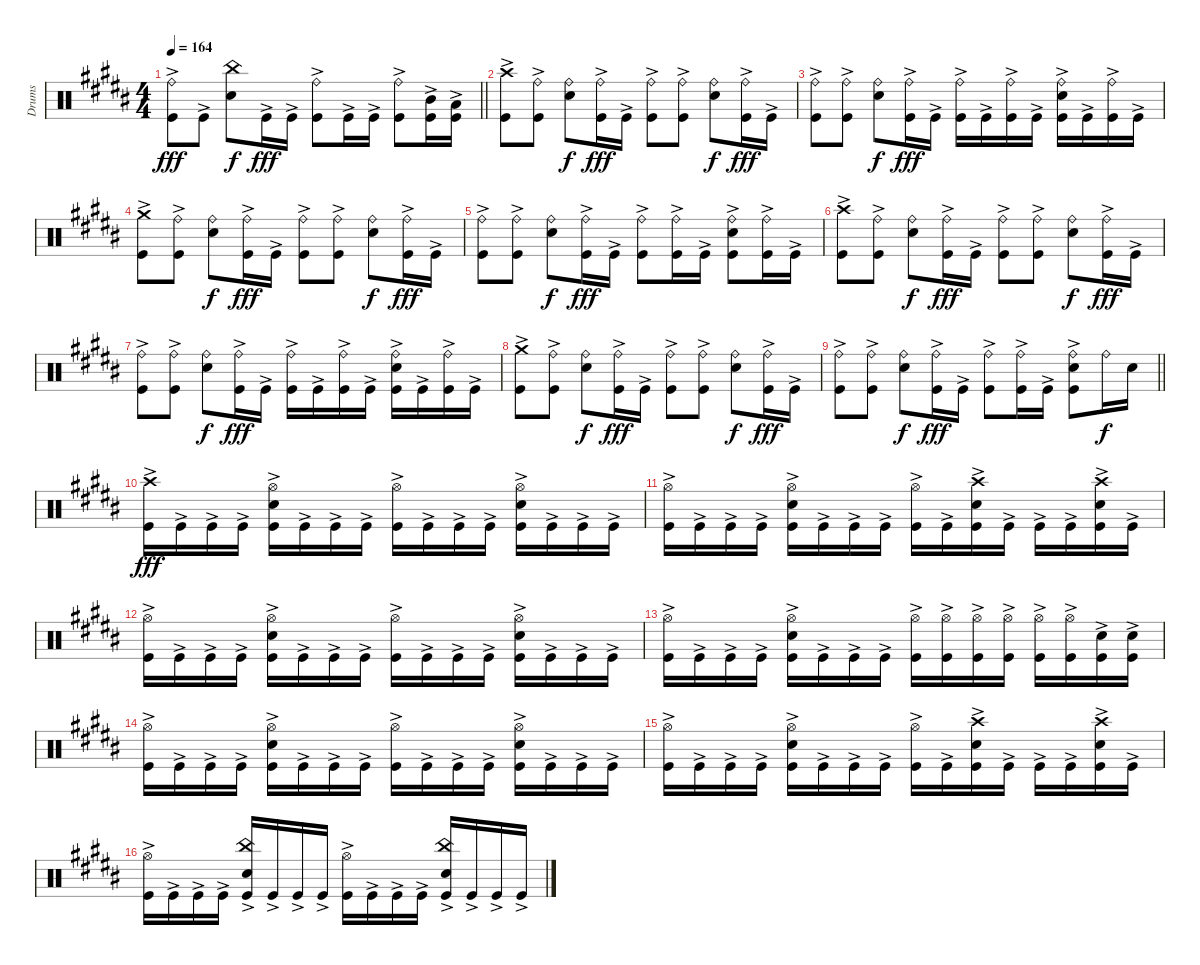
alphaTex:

\track ("Drums" "Drums") {instrument percussion}
\staff {score}
\articulation defaults
\ts (4 4)
\tempo 164
\clef neutral
\barLineRight lightlight
\ks g#minor
("Ride (bell)" "Kick (hit)"{ac}).8{dy fff} "Kick (hit)"{ac}.8 ("China (hit)" "Snare (hit) 2").8{dy f} "Kick (hit)"{ac}.16{dy fff} "Kick (hit)"{ac}.16 ("Ride (bell)" "Kick (hit)"{ac}).8 "Kick (hit)"{ac}.16 "Kick (hit)"{ac}.16 ("Ride (bell)" "Kick (hit)"{ac}).8 ("Mid Tom (hit)"{ac} "Kick (hit)"{ac}).16 ("Low Tom (hit)"{ac} "Kick (hit)"{ac}).16 |
("Crash high (hit)" "Kick (hit)"{ac}).8 ("Ride (bell)" "Kick (hit)"{ac}).8 ("Ride (bell)" "Snare (hit) 2").8{dy f} ("Ride (bell)" "Kick (hit)"{ac}).16{dy fff} "Kick (hit)"{ac}.16 ("Ride (bell)" "Kick (hit)"{ac}).8 ("Ride (bell)" "Kick (hit)"{ac}).8 ("Ride (bell)" "Snare (hit) 2").8{dy f} ("Ride (bell)" "Kick (hit)"{ac}).16{dy fff} "Kick (hit)"{ac}.16 |
("Ride (bell)" "Kick (hit)"{ac}).8 ("Ride (bell)" "Kick (hit)"{ac}).8 ("Ride (bell)" "Snare (hit) 2").8{dy f} ("Ride (bell)" "Kick (hit)"{ac}).16{dy fff} "Kick (hit)"{ac}.16 ("Ride (bell)" "Kick (hit)"{ac}).16 "Kick (hit)"{ac}.16 ("Ride (bell)" "Kick (hit)"{ac}).16 "Kick (hit)"{ac}.16 ("Ride (bell)" "Snare (hit) 2" "Kick (hit)"{ac}).16 "Kick (hit)"{ac}.16 ("Ride (bell)" "Kick (hit)"{ac}).16 "Kick (hit)"{ac}.16 |
("Crash medium (hit)" "Kick (hit)"{ac}).8 ("Ride (bell)" "Kick (hit)"{ac}).8 ("Ride (bell)" "Snare (hit) 2").8{dy f} ("Ride (bell)" "Kick (hit)"{ac}).16{dy fff} "Kick (hit)"{ac}.16 ("Ride (bell)" "Kick (hit)"{ac}).8 ("Ride (bell)" "Kick (hit)"{ac}).8 ("Ride (bell)" "Snare (hit) 2").8{dy f} ("Ride (bell)" "Kick (hit)"{ac}).16{dy fff} "Kick (hit)"{ac}.16 |
("Ride (bell)" "Kick (hit)"{ac}).8 ("Ride (bell)" "Kick (hit)"{ac}).8 ("Ride (bell)" "Snare (hit) 2").8{dy f} ("Ride (bell)" "Kick (hit)"{ac}).16{dy fff} "Kick (hit)"{ac}.16 ("Ride (bell)" "Kick (hit)"{ac}).8 ("Ride (bell)" "Kick (hit)"{ac}).16 "Kick (hit)"{ac}.16 ("Ride (bell)" "Snare (hit) 2" "Kick (hit)"{ac}).8 ("Ride (bell)" "Kick (hit)"{ac}).16 "Kick (hit)"{ac}.16 |
("Crash high (hit)" "Kick (hit)"{ac}).8 ("Ride (bell)" "Kick (hit)"{ac}).8 ("Ride (bell)" "Snare (hit) 2").8{dy f} ("Ride (bell)" "Kick (hit)"{ac}).16{dy fff} "Kick (hit)"{ac}.16 ("Ride (bell)" "Kick (hit)"{ac}).8 ("Ride (bell)" "Kick (hit)"{ac}).8 ("Ride (bell)" "Snare (hit) 2").8{dy f} ("Ride (bell)" "Kick (hit)"{ac}).16{dy fff} "Kick (hit)"{ac}.16 |
("Ride (bell)" "Kick (hit)"{ac}).8 ("Ride (bell)" "Kick (hit)"{ac}).8 ("Ride (bell)" "Snare (hit) 2").8{dy f} ("Ride (bell)" "Kick (hit)"{ac}).16{dy fff} "Kick (hit)"{ac}.16 ("Ride (bell)" "Kick (hit)"{ac}).16 "Kick (hit)"{ac}.16 ("Ride (bell)" "Kick (hit)"{ac}).16 "Kick (hit)"{ac}.16 ("Ride (bell)" "Snare (hit) 2" "Kick (hit)"{ac}).16 "Kick (hit)"{ac}.16 ("Ride (bell)" "Kick (hit)"{ac}).16 "Kick (hit)"{ac}.16 |
("Crash medium (hit)" "Kick (hit)"{ac}).8 ("Ride (bell)" "Kick (hit)"{ac}).8 ("Ride (bell)" "Snare (hit) 2").8{dy f} ("Ride (bell)" "Kick (hit)"{ac}).16{dy fff} "Kick (hit)"{ac}.16 ("Ride (bell)" "Kick (hit)"{ac}).8 ("Ride (bell)" "Kick (hit)"{ac}).8 ("Ride (bell)" "Snare (hit) 2").8{dy f} ("Ride (bell)" "Kick (hit)"{ac}).16{dy fff} "Kick (hit)"{ac}.16 |
\barLineRight lightlight
("Ride (bell)" "Kick (hit)"{ac}).8 ("Ride (bell)" "Kick (hit)"{ac}).8 ("Ride (bell)" "Snare (hit) 2").8{dy f} ("Ride (bell)" "Kick (hit)"{ac}).16{dy fff} "Kick (hit)"{ac}.16 ("Ride (bell)" "Kick (hit)"{ac}).8 ("Ride (bell)" "Kick (hit)"{ac}).16 "Kick (hit)"{ac}.16 ("Ride (bell)" "Snare (hit) 2" "Kick (hit)"{ac}).8 "Ride (bell)".16{dy f} "Snare (hit) 2".16 |
("Crash high (hit)" "Kick (hit)"{ac}).16{dy fff} "Kick (hit)"{ac}.16 "Kick (hit)"{ac}.16 "Kick (hit)"{ac}.16 ("Hi-Hat (open)" "Snare (hit) 2" "Kick (hit)"{ac}).16 "Kick (hit)"{ac}.16 "Kick (hit)"{ac}.16 "Kick (hit)"{ac}.16 ("Hi-Hat (open)" "Kick (hit)"{ac}).16 "Kick (hit)"{ac}.16 "Kick (hit)"{ac}.16 "Kick (hit)"{ac}.16 ("Hi-Hat (open)" "Snare (hit) 2" "Kick (hit)"{ac}).16 "Kick (hit)"{ac}.16 "Kick (hit)"{ac}.16 "Kick (hit)"{ac}.16 |
("Hi-Hat (open)" "Kick (hit)"{ac}).16 "Kick (hit)"{ac}.16 "Kick (hit)"{ac}.16 "Kick (hit)"{ac}.16 ("Hi-Hat (open)" "Snare (hit) 2" "Kick (hit)"{ac}).16 "Kick (hit)"{ac}.16 "Kick (hit)"{ac}.16 "Kick (hit)"{ac}.16 ("Hi-Hat (open)" "Kick (hit)"{ac}).16 "Kick (hit)"{ac}.16 ("Crash high (hit)" "Snare (hit) 2" "Kick (hit)"{ac}).16 "Kick (hit)"{ac}.16 "Kick (hit)"{ac}.16 "Kick (hit)"{ac}.16 ("Crash high (hit)" "Snare (hit) 2" "Kick (hit)"{ac}).16 "Kick (hit)"{ac}.16 |
("Hi-Hat (open)" "Kick (hit)"{ac}).16 "Kick (hit)"{ac}.16 "Kick (hit)"{ac}.16 "Kick (hit)"{ac}.16 ("Hi-Hat (open)" "Snare (hit) 2" "Kick (hit)"{ac}).16 "Kick (hit)"{ac}.16 "Kick (hit)"{ac}.16 "Kick (hit)"{ac}.16 ("Hi-Hat (open)" "Kick (hit)"{ac}).16 "Kick (hit)"{ac}.16 "Kick (hit)"{ac}.16 "Kick (hit)"{ac}.16 ("Hi-Hat (open)" "Snare (hit) 2" "Kick (hit)"{ac}).16 "Kick (hit)"{ac}.16 "Kick (hit)"{ac}.16 "Kick (hit)"{ac}.16 |
("Hi-Hat (open)" "Kick (hit)"{ac}).16 "Kick (hit)"{ac}.16 "Kick (hit)"{ac}.16 "Kick (hit)"{ac}.16 ("Hi-Hat (open)" "Snare (hit) 2" "Kick (hit)"{ac}).16 "Kick (hit)"{ac}.16 "Kick (hit)"{ac}.16 "Kick (hit)"{ac}.16 ("Hi-Hat (open)" "Kick (hit)"{ac}).16 ("Hi-Hat (open)" "Kick (hit)"{ac}).16 ("Hi-Hat (open)" "Kick (hit)"{ac}).16 ("Hi-Hat (open)" "Kick (hit)"{ac}).16 ("Hi-Hat (open)" "Kick (hit)"{ac}).16 ("Hi-Hat (open)" "Kick (hit)"{ac}).16 ("Snare (hit) 2"{ac} "Kick (hit)"{ac}).16 ("Snare (hit) 2"{ac} "Kick (hit)"{ac}).16 |
("Hi-Hat (open)" "Kick (hit)"{ac}).16 "Kick (hit)"{ac}.16 "Kick (hit)"{ac}.16 "Kick (hit)"{ac}.16 ("Hi-Hat (open)" "Snare (hit) 2" "Kick (hit)"{ac}).16 "Kick (hit)"{ac}.16 "Kick (hit)"{ac}.16 "Kick (hit)"{ac}.16 ("Hi-Hat (open)" "Kick (hit)"{ac}).16 "Kick (hit)"{ac}.16 "Kick (hit)"{ac}.16 "Kick (hit)"{ac}.16 ("Hi-Hat (open)" "Snare (hit) 2" "Kick (hit)"{ac}).16 "Kick (hit)"{ac}.16 "Kick (hit)"{ac}.16 "Kick (hit)"{ac}.16 |
("Hi-Hat (open)" "Kick (hit)"{ac}).16 "Kick (hit)"{ac}.16 "Kick (hit)"{ac}.16 "Kick (hit)"{ac}.16 ("Hi-Hat (open)" "Snare (hit) 2" "Kick (hit)"{ac}).16 "Kick (hit)"{ac}.16 "Kick (hit)"{ac}.16 "Kick (hit)"{ac}.16 ("Hi-Hat (open)" "Kick (hit)"{ac}).16 "Kick (hit)"{ac}.16 ("Crash high (hit)" "Snare (hit) 2" "Kick (hit)"{ac}).16 "Kick (hit)"{ac}.16 "Kick (hit)"{ac}.16 "Kick (hit)"{ac}.16 ("Crash high (hit)" "Snare (hit) 2" "Kick (hit)"{ac}).16 "Kick (hit)"{ac}.16 |
("Hi-Hat (open)" "Kick (hit)"{ac}).16 "Kick (hit)"{ac}.16 "Kick (hit)"{ac}.16 "Kick (hit)"{ac}.16 ("China (hit)" "Snare (hit) 2" "Kick (hit)"{ac}).16 "Kick (hit)"{ac}.16 "Kick (hit)"{ac}.16 "Kick (hit)"{ac}.16 ("Hi-Hat (open)" "Kick (hit)"{ac}).16 "Kick (hit)"{ac}.16 "Kick (hit)"{ac}.16 "Kick (hit)"{ac}.16 ("China (hit)" "Snare (hit) 2" "Kick (hit)"{ac}).16 "Kick (hit)"{ac}.16 "Kick (hit)"{ac}.16 "Kick (hit)"{ac}.16
